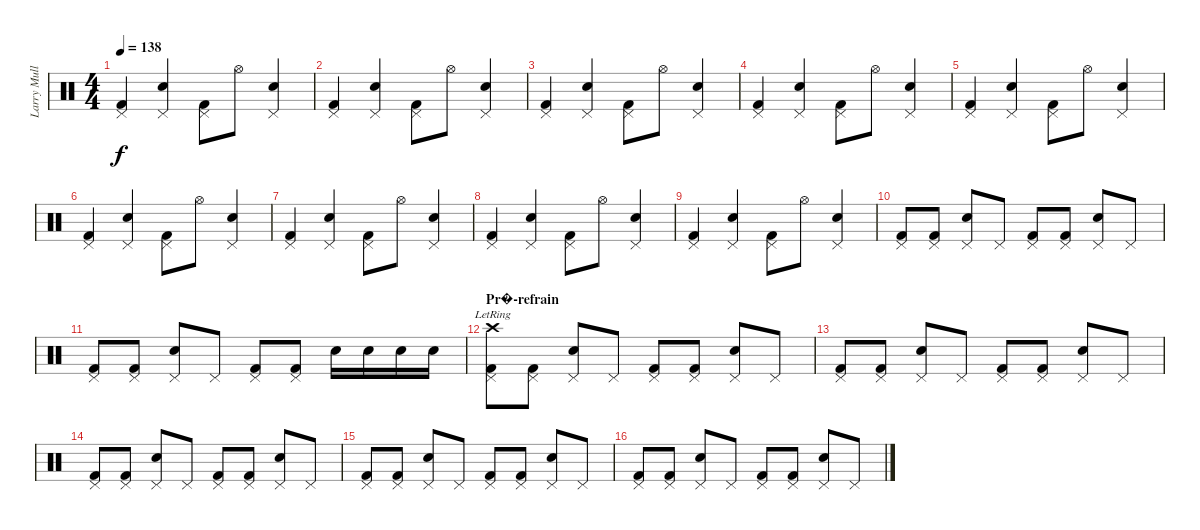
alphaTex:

\track ("Larry Mullen" "Larry Mull") {instrument percussion}
\staff {score}
\articulation defaults
\ts (4 4)
\tempo 138
\clef neutral
\ks c
("Kick (hit) 2" "Pedal Hi-Hat (hit)").4{dy f} ("Snare (hit) 2" "Pedal Hi-Hat (hit)").4 ("Kick (hit) 2" "Pedal Hi-Hat (hit)").8 "Hi-Hat (open)".8 ("Snare (hit) 2" "Pedal Hi-Hat (hit)").4 |
("Kick (hit) 2" "Pedal Hi-Hat (hit)").4 ("Snare (hit) 2" "Pedal Hi-Hat (hit)").4 ("Kick (hit) 2" "Pedal Hi-Hat (hit)").8 "Hi-Hat (open)".8 ("Snare (hit) 2" "Pedal Hi-Hat (hit)").4 |
("Kick (hit) 2" "Pedal Hi-Hat (hit)").4 ("Snare (hit) 2" "Pedal Hi-Hat (hit)").4 ("Kick (hit) 2" "Pedal Hi-Hat (hit)").8 "Hi-Hat (open)".8 ("Snare (hit) 2" "Pedal Hi-Hat (hit)").4 |
("Kick (hit) 2" "Pedal Hi-Hat (hit)").4 ("Snare (hit) 2" "Pedal Hi-Hat (hit)").4 ("Kick (hit) 2" "Pedal Hi-Hat (hit)").8 "Hi-Hat (open)".8 ("Snare (hit) 2" "Pedal Hi-Hat (hit)").4 |
("Kick (hit) 2" "Pedal Hi-Hat (hit)").4 ("Snare (hit) 2" "Pedal Hi-Hat (hit)").4 ("Kick (hit) 2" "Pedal Hi-Hat (hit)").8 "Hi-Hat (open)".8 ("Snare (hit) 2" "Pedal Hi-Hat (hit)").4 |
("Kick (hit) 2" "Pedal Hi-Hat (hit)").4 ("Snare (hit) 2" "Pedal Hi-Hat (hit)").4 ("Kick (hit) 2" "Pedal Hi-Hat (hit)").8 "Hi-Hat (open)".8 ("Snare (hit) 2" "Pedal Hi-Hat (hit)").4 |
("Kick (hit) 2" "Pedal Hi-Hat (hit)").4 ("Snare (hit) 2" "Pedal Hi-Hat (hit)").4 ("Kick (hit) 2" "Pedal Hi-Hat (hit)").8 "Hi-Hat (open)".8 ("Snare (hit) 2" "Pedal Hi-Hat (hit)").4 |
("Kick (hit) 2" "Pedal Hi-Hat (hit)").4 ("Snare (hit) 2" "Pedal Hi-Hat (hit)").4 ("Kick (hit) 2" "Pedal Hi-Hat (hit)").8 "Hi-Hat (open)".8 ("Snare (hit) 2" "Pedal Hi-Hat (hit)").4 |
("Kick (hit) 2" "Pedal Hi-Hat (hit)").4 ("Snare (hit) 2" "Pedal Hi-Hat (hit)").4 ("Kick (hit) 2" "Pedal Hi-Hat (hit)").8 "Hi-Hat (open)".8 ("Snare (hit) 2" "Pedal Hi-Hat (hit)").4 |
("Kick (hit) 2" "Pedal Hi-Hat (hit)").8 ("Kick (hit) 2" "Pedal Hi-Hat (hit)").8 ("Snare (hit) 2" "Pedal Hi-Hat (hit)").8 "Pedal Hi-Hat (hit)".8 ("Kick (hit) 2" "Pedal Hi-Hat (hit)").8 ("Kick (hit) 2" "Pedal Hi-Hat (hit)").8 ("Snare (hit) 2" "Pedal Hi-Hat (hit)").8 "Pedal Hi-Hat (hit)".8 |
("Kick (hit) 2" "Pedal Hi-Hat (hit)").8 ("Kick (hit) 2" "Pedal Hi-Hat (hit)").8 ("Snare (hit) 2" "Pedal Hi-Hat (hit)").8 "Pedal Hi-Hat (hit)".8 ("Kick (hit) 2" "Pedal Hi-Hat (hit)").8 ("Kick (hit) 2" "Pedal Hi-Hat (hit)").8 "Snare (hit) 2".16 "Snare (hit) 2".16 "Snare (hit) 2".16 "Snare (hit) 2".16 |
\section ("" "Pr�-refrain")
("Kick (hit) 2" "Crash high (hit)"{lr} "Pedal Hi-Hat (hit)").8 ("Kick (hit) 2" "Pedal Hi-Hat (hit)").8 ("Snare (hit) 2" "Pedal Hi-Hat (hit)").8 "Pedal Hi-Hat (hit)".8 ("Kick (hit) 2" "Pedal Hi-Hat (hit)").8 ("Kick (hit) 2" "Pedal Hi-Hat (hit)").8 ("Snare (hit) 2" "Pedal Hi-Hat (hit)").8 "Pedal Hi-Hat (hit)".8 |
("Kick (hit) 2" "Pedal Hi-Hat (hit)").8 ("Kick (hit) 2" "Pedal Hi-Hat (hit)").8 ("Snare (hit) 2" "Pedal Hi-Hat (hit)").8 "Pedal Hi-Hat (hit)".8 ("Kick (hit) 2" "Pedal Hi-Hat (hit)").8 ("Kick (hit) 2" "Pedal Hi-Hat (hit)").8 ("Snare (hit) 2" "Pedal Hi-Hat (hit)").8 "Pedal Hi-Hat (hit)".8 |
("Kick (hit) 2" "Pedal Hi-Hat (hit)").8 ("Kick (hit) 2" "Pedal Hi-Hat (hit)").8 ("Snare (hit) 2" "Pedal Hi-Hat (hit)").8 "Pedal Hi-Hat (hit)".8 ("Kick (hit) 2" "Pedal Hi-Hat (hit)").8 ("Kick (hit) 2" "Pedal Hi-Hat (hit)").8 ("Snare (hit) 2" "Pedal Hi-Hat (hit)").8 "Pedal Hi-Hat (hit)".8 |
("Kick (hit) 2" "Pedal Hi-Hat (hit)").8 ("Kick (hit) 2" "Pedal Hi-Hat (hit)").8 ("Snare (hit) 2" "Pedal Hi-Hat (hit)").8 "Pedal Hi-Hat (hit)".8 ("Kick (hit) 2" "Pedal Hi-Hat (hit)").8 ("Kick (hit) 2" "Pedal Hi-Hat (hit)").8 ("Snare (hit) 2" "Pedal Hi-Hat (hit)").8 "Pedal Hi-Hat (hit)".8 |
("Kick (hit) 2" "Pedal Hi-Hat (hit)").8 ("Kick (hit) 2" "Pedal Hi-Hat (hit)").8 ("Snare (hit) 2" "Pedal Hi-Hat (hit)").8 "Pedal Hi-Hat (hit)".8 ("Kick (hit) 2" "Pedal Hi-Hat (hit)").8 ("Kick (hit) 2" "Pedal Hi-Hat (hit)").8 ("Snare (hit) 2" "Pedal Hi-Hat (hit)").8 "Pedal Hi-Hat (hit)".8
